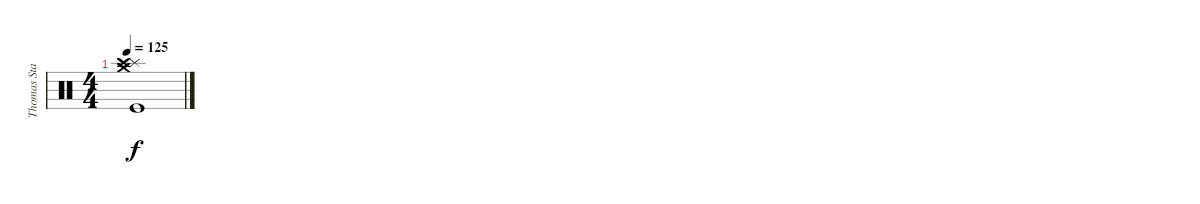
\track ("Thomas Stauch" "Thomas Sta") {instrument percussion}
\staff {score}
\articulation defaults
\ts (4 4)
\tempo 125
\clef neutral
\ks c
("Crash medium (hit)" "Splash (hit)" "Crash high (hit)" "Kick (hit)").1{dy f}
